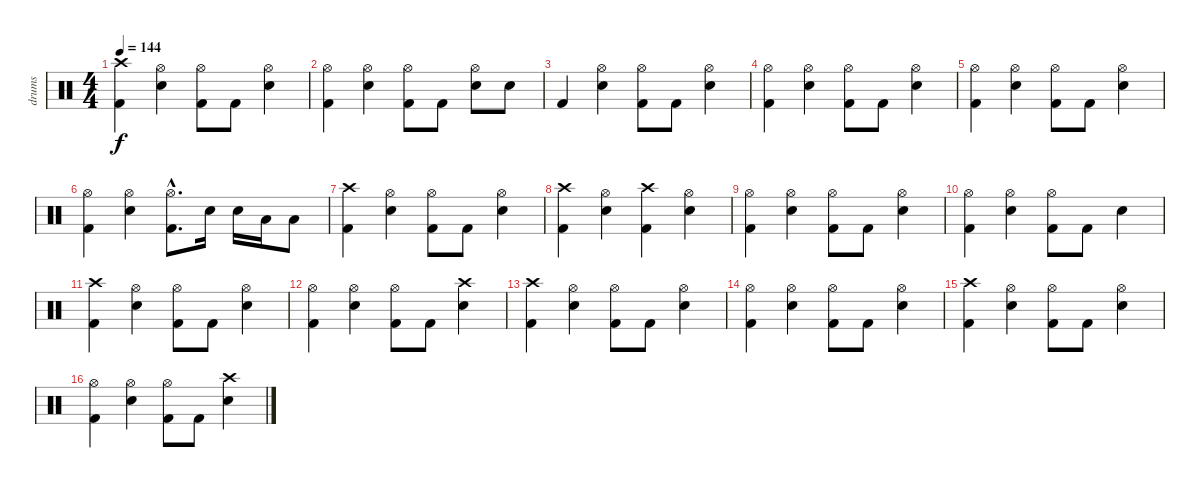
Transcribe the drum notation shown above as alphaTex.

\track ("drums" "drums") {instrument percussion}
\staff {score}
\articulation defaults
\ts (4 4)
\tempo 144
\clef neutral
\ks c
("Crash high (hit)" "Kick (hit) 2").4{dy f} ("Hi-Hat (open)" "Electric Snare (hit)").4 ("Hi-Hat (open)" "Kick (hit) 2").8 "Kick (hit) 2".8 ("Hi-Hat (open)" "Electric Snare (hit)").4 |
("Hi-Hat (open)" "Kick (hit) 2").4 ("Hi-Hat (open)" "Electric Snare (hit)").4 ("Hi-Hat (open)" "Kick (hit) 2").8 "Kick (hit) 2".8 ("Hi-Hat (open)" "Electric Snare (hit)").8 "Electric Snare (hit)".8 |
"Kick (hit) 2".4 ("Hi-Hat (open)" "Electric Snare (hit)").4 ("Hi-Hat (open)" "Kick (hit) 2").8 "Kick (hit) 2".8 ("Hi-Hat (open)" "Electric Snare (hit)").4 |
("Hi-Hat (open)" "Kick (hit) 2").4 ("Hi-Hat (open)" "Electric Snare (hit)").4 ("Hi-Hat (open)" "Kick (hit) 2").8 "Kick (hit) 2".8 ("Hi-Hat (open)" "Electric Snare (hit)").4 |
("Hi-Hat (open)" "Kick (hit) 2").4 ("Hi-Hat (open)" "Electric Snare (hit)").4 ("Hi-Hat (open)" "Kick (hit) 2").8 "Kick (hit) 2".8 ("Hi-Hat (open)" "Electric Snare (hit)").4 |
("Hi-Hat (open)" "Kick (hit) 2").4 ("Hi-Hat (open)" "Electric Snare (hit)").4 ("Hi-Hat (open)"{hac} "Kick (hit) 2"{hac}).8{d} "Electric Snare (hit)".16 "Electric Snare (hit)".16 "Low Tom (hit)".16 "Low Tom (hit)".8 |
("Crash high (hit)" "Kick (hit) 2").4 ("Hi-Hat (open)" "Electric Snare (hit)").4 ("Hi-Hat (open)" "Kick (hit) 2").8 "Kick (hit) 2".8 ("Hi-Hat (open)" "Electric Snare (hit)").4 |
("Crash high (hit)" "Kick (hit) 2").4 ("Hi-Hat (open)" "Electric Snare (hit)").4 ("Crash high (hit)" "Kick (hit) 2").4 ("Hi-Hat (open)" "Electric Snare (hit)").4 |
("Hi-Hat (open)" "Kick (hit) 2").4 ("Hi-Hat (open)" "Electric Snare (hit)").4 ("Hi-Hat (open)" "Kick (hit) 2").8 "Kick (hit) 2".8 ("Hi-Hat (open)" "Electric Snare (hit)").4 |
("Hi-Hat (open)" "Kick (hit) 2").4 ("Hi-Hat (open)" "Electric Snare (hit)").4 ("Hi-Hat (open)" "Kick (hit) 2").8 "Kick (hit) 2".8 "Electric Snare (hit)".4 |
("Crash high (hit)" "Kick (hit) 2").4 ("Hi-Hat (open)" "Electric Snare (hit)").4 ("Hi-Hat (open)" "Kick (hit) 2").8 "Kick (hit) 2".8 ("Hi-Hat (open)" "Electric Snare (hit)").4 |
("Hi-Hat (open)" "Kick (hit) 2").4 ("Hi-Hat (open)" "Electric Snare (hit)").4 ("Hi-Hat (open)" "Kick (hit) 2").8 "Kick (hit) 2".8 ("Crash high (hit)" "Electric Snare (hit)").4 |
("Crash high (hit)" "Kick (hit) 2").4 ("Hi-Hat (open)" "Electric Snare (hit)").4 ("Hi-Hat (open)" "Kick (hit) 2").8 "Kick (hit) 2".8 ("Hi-Hat (open)" "Electric Snare (hit)").4 |
("Hi-Hat (open)" "Kick (hit) 2").4 ("Hi-Hat (open)" "Electric Snare (hit)").4 ("Hi-Hat (open)" "Kick (hit) 2").8 "Kick (hit) 2".8 ("Hi-Hat (open)" "Electric Snare (hit)").4 |
("Crash high (hit)" "Kick (hit) 2").4 ("Hi-Hat (open)" "Electric Snare (hit)").4 ("Hi-Hat (open)" "Kick (hit) 2").8 "Kick (hit) 2".8 ("Hi-Hat (open)" "Electric Snare (hit)").4 |
("Hi-Hat (open)" "Kick (hit) 2").4 ("Hi-Hat (open)" "Electric Snare (hit)").4 ("Hi-Hat (open)" "Kick (hit) 2").8 "Kick (hit) 2".8 ("Crash high (hit)" "Electric Snare (hit)").4
